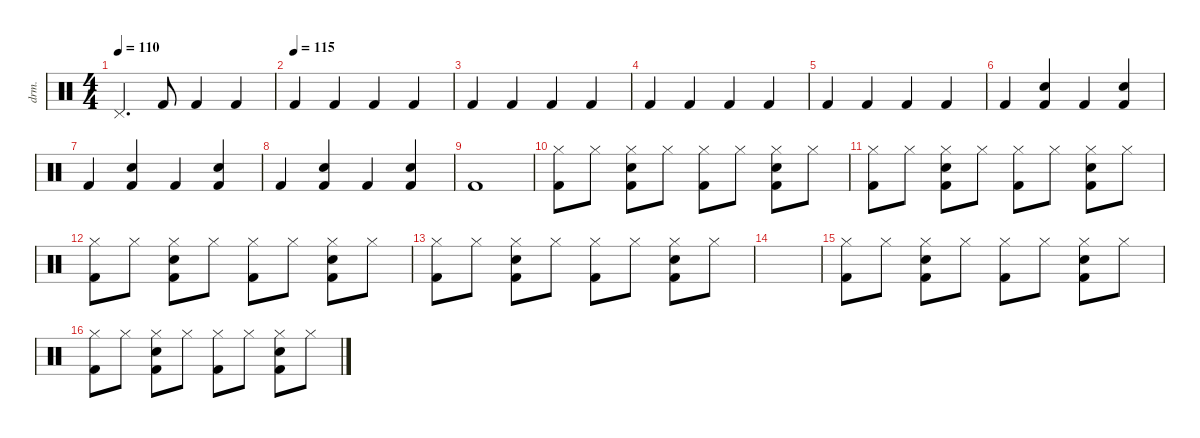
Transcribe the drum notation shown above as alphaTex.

\defaultSystemsLayout 4
\hideDynamics
\bracketExtendMode nobrackets
\track ("Drumkit" "drm.") {instrument percussion}
\staff {score}
\articulation defaults
\ts (4 4)
\tempo 110
\clef neutral
\ks c "Pedal Hi-Hat (hit)".4{d dy mf beam Up} "Kick (hit) 2".8{beam Up} "Kick (hit) 2".4{beam Up} "Kick (hit) 2".4{beam Up}
|
\tempo (115)
"Kick (hit) 2".4{beam Up} "Kick (hit) 2".4{beam Up} "Kick (hit) 2".4{beam Up} "Kick (hit) 2".4{beam Up} |
"Kick (hit) 2".4{beam Up} "Kick (hit) 2".4{beam Up} "Kick (hit) 2".4{beam Up} "Kick (hit) 2".4{beam Up} |
"Kick (hit) 2".4{beam Up} "Kick (hit) 2".4{beam Up} "Kick (hit) 2".4{beam Up} "Kick (hit) 2".4{beam Up} |
"Kick (hit) 2".4{beam Up} "Kick (hit) 2".4{beam Up} "Kick (hit) 2".4{beam Up} "Kick (hit) 2".4{beam Up} |
"Kick (hit) 2".4{beam Up} ("Kick (hit) 2" "Electric Snare (hit)").4{beam Up} "Kick (hit) 2".4{beam Up} ("Kick (hit) 2" "Electric Snare (hit)").4{beam Up} |
"Kick (hit) 2".4{beam Up} ("Kick (hit) 2" "Electric Snare (hit)").4{beam Up} "Kick (hit) 2".4{beam Up} ("Kick (hit) 2" "Electric Snare (hit)").4{beam Up} |
"Kick (hit) 2".4{beam Up} ("Kick (hit) 2" "Electric Snare (hit)").4{beam Up} "Kick (hit) 2".4{beam Up} ("Kick (hit) 2" "Electric Snare (hit)").4{beam Up} |
"Kick (hit) 2".1{beam Up} |
("Kick (hit) 2" "Hi-Hat (closed)").8{beam Down} "Hi-Hat (closed)".8{beam Down} ("Kick (hit) 2" "Electric Snare (hit)" "Hi-Hat (closed)").8{beam Down} "Hi-Hat (closed)".8{beam Down} ("Kick (hit) 2" "Hi-Hat (closed)").8{beam Down} "Hi-Hat (closed)".8{beam Down} ("Kick (hit) 2" "Electric Snare (hit)" "Hi-Hat (closed)").8{beam Down} "Hi-Hat (closed)".8{beam Down} |
("Kick (hit) 2" "Hi-Hat (closed)").8{beam Down} "Hi-Hat (closed)".8{beam Down} ("Kick (hit) 2" "Electric Snare (hit)" "Hi-Hat (closed)").8{beam Down} "Hi-Hat (closed)".8{beam Down} ("Kick (hit) 2" "Hi-Hat (closed)").8{beam Down} "Hi-Hat (closed)".8{beam Down} ("Kick (hit) 2" "Electric Snare (hit)" "Hi-Hat (closed)").8{beam Down} "Hi-Hat (closed)".8{beam Down} |
("Kick (hit) 2" "Hi-Hat (closed)").8{beam Down} "Hi-Hat (closed)".8{beam Down} ("Kick (hit) 2" "Electric Snare (hit)" "Hi-Hat (closed)").8{beam Down} "Hi-Hat (closed)".8{beam Down} ("Kick (hit) 2" "Hi-Hat (closed)").8{beam Down} "Hi-Hat (closed)".8{beam Down} ("Kick (hit) 2" "Electric Snare (hit)" "Hi-Hat (closed)").8{beam Down} "Hi-Hat (closed)".8{beam Down} |
("Kick (hit) 2" "Hi-Hat (closed)").8{beam Down} "Hi-Hat (closed)".8{beam Down} ("Kick (hit) 2" "Electric Snare (hit)" "Hi-Hat (closed)").8{beam Down} "Hi-Hat (closed)".8{beam Down} ("Kick (hit) 2" "Hi-Hat (closed)").8{beam Down} "Hi-Hat (closed)".8{beam Down} ("Kick (hit) 2" "Electric Snare (hit)" "Hi-Hat (closed)").8{beam Down} "Hi-Hat (closed)".8{beam Down} |
|
("Kick (hit) 2" "Hi-Hat (closed)").8{beam Down} "Hi-Hat (closed)".8{beam Down} ("Kick (hit) 2" "Electric Snare (hit)" "Hi-Hat (closed)").8{beam Down} "Hi-Hat (closed)".8{beam Down} ("Kick (hit) 2" "Hi-Hat (closed)").8{beam Down} "Hi-Hat (closed)".8{beam Down} ("Kick (hit) 2" "Electric Snare (hit)" "Hi-Hat (closed)").8{beam Down} "Hi-Hat (closed)".8{beam Down} |
("Kick (hit) 2" "Hi-Hat (closed)").8{beam Down} "Hi-Hat (closed)".8{beam Down} ("Kick (hit) 2" "Electric Snare (hit)" "Hi-Hat (closed)").8{beam Down} "Hi-Hat (closed)".8{beam Down} ("Kick (hit) 2" "Hi-Hat (closed)").8{beam Down} "Hi-Hat (closed)".8{beam Down} ("Kick (hit) 2" "Electric Snare (hit)" "Hi-Hat (closed)").8{beam Down} "Hi-Hat (closed)".8{beam Down}
